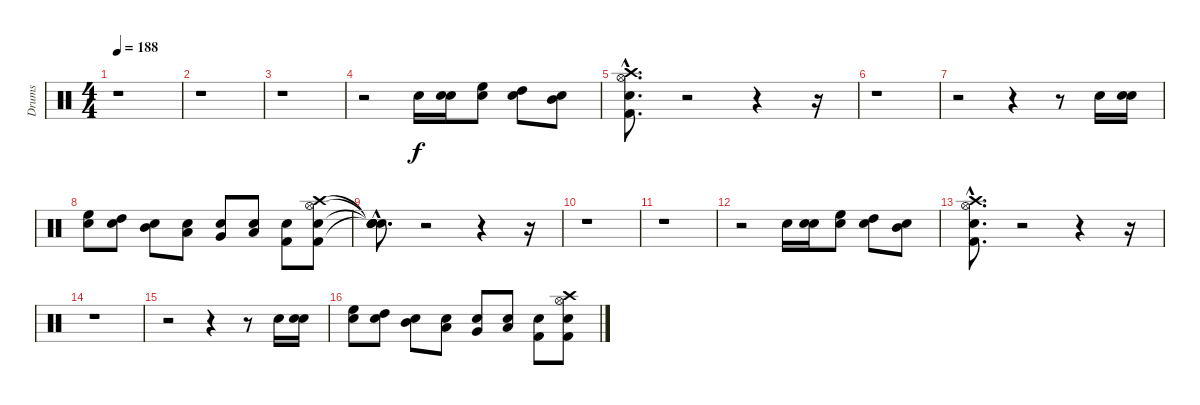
\track ("Drums" "Drums") {instrument percussion}
\staff {score}
\articulation defaults
\ts (4 4)
\tempo 188
\clef neutral
\ks c
r.1{dy f} |
r.1 |
r.1 |
r.2 "Snare (hit) 2".16 ("Snare (hit)" "Snare (hit) 2").16 ("Snare (hit)" "High Floor Tom (hit)").8 ("Snare (hit)" "High Tom (hit)").8 ("Snare (hit)" "Mid Tom (hit)").8 |
("Snare (hit)"{hac} "Kick (hit) 2"{hac} "Hi-Hat (open)"{hac} "Crash high (hit)"{hac}).8{d} r.2 r.4 r.16 |
r.1 |
r.2 r.4 r.8 "Snare (hit) 2".16 ("Snare (hit)" "Snare (hit) 2").16 |
("Snare (hit)" "High Floor Tom (hit)").8 ("Snare (hit)" "High Tom (hit)").8 ("Snare (hit)" "Mid Tom (hit)").8 ("Snare (hit)" "Low Tom (hit)").8 ("Snare (hit)" "Very Low Tom (hit)").8 ("Snare (hit)" "Low Floor Tom (hit)").8 ("Snare (hit)" "Kick (hit) 2").8 ("Snare (hit)" "Kick (hit) 2" "Hi-Hat (open)" "Crash high (hit)").8 |
("Snare (hit)"{hac t} "Snare (hit)"{hac t} "Snare (hit)"{hac t} "Snare (hit)"{hac t}).8{d} r.2 r.4 r.16 |
r.1 |
r.1 |
r.2 "Snare (hit) 2".16 ("Snare (hit)" "Snare (hit) 2").16 ("Snare (hit)" "High Floor Tom (hit)").8 ("Snare (hit)" "High Tom (hit)").8 ("Snare (hit)" "Mid Tom (hit)").8 |
("Snare (hit)"{hac} "Kick (hit) 2"{hac} "Hi-Hat (open)"{hac} "Crash high (hit)"{hac}).8{d} r.2 r.4 r.16 |
r.1 |
r.2 r.4 r.8 "Snare (hit) 2".16 ("Snare (hit)" "Snare (hit) 2").16 |
("Snare (hit)" "High Floor Tom (hit)").8 ("Snare (hit)" "High Tom (hit)").8 ("Snare (hit)" "Mid Tom (hit)").8 ("Snare (hit)" "Low Tom (hit)").8 ("Snare (hit)" "Very Low Tom (hit)").8 ("Snare (hit)" "Low Floor Tom (hit)").8 ("Snare (hit)" "Kick (hit) 2").8 ("Snare (hit)" "Kick (hit) 2" "Hi-Hat (open)" "Crash high (hit)").8
